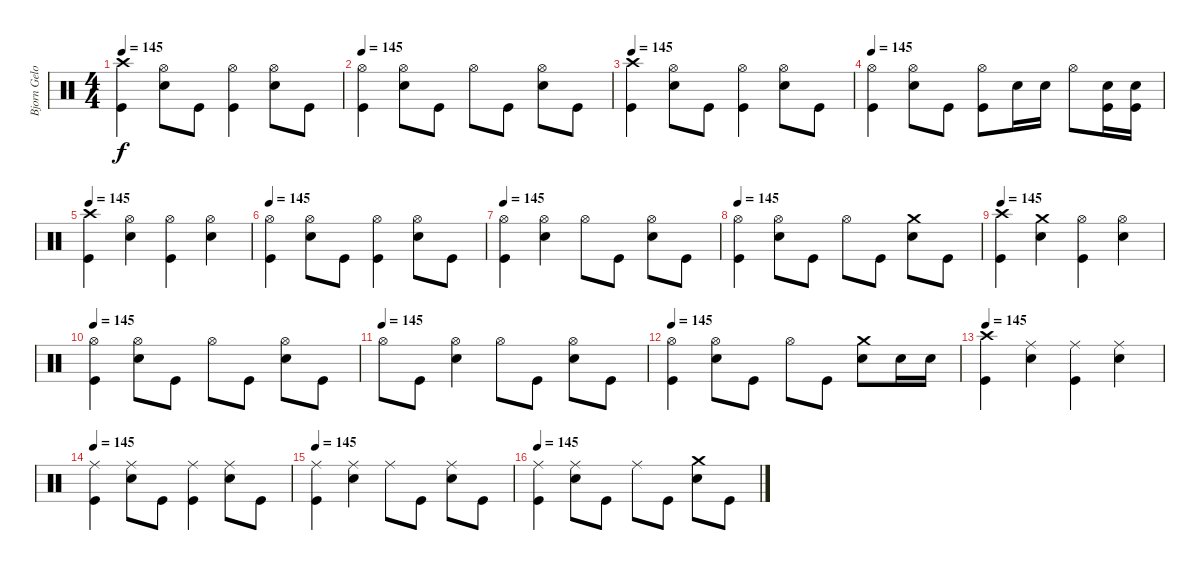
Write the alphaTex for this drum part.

\track ("Bjorn Gelotte-Drum" "Bjorn Gelo") {instrument percussion}
\staff {score}
\articulation defaults
\ts (4 4)
\tempo 145
\clef neutral
\ks c
("Crash high (hit)" "Kick (hit)").4{dy f} ("Hi-Hat (open)" "Electric Snare (hit)").8 "Kick (hit)".8 ("Hi-Hat (open)" "Kick (hit)").4 ("Hi-Hat (open)" "Electric Snare (hit)").8 "Kick (hit)".8 |
\tempo 145
("Hi-Hat (open)" "Kick (hit)").4 ("Hi-Hat (open)" "Electric Snare (hit)").8 "Kick (hit)".8 "Hi-Hat (open)".8 "Kick (hit)".8 ("Hi-Hat (open)" "Electric Snare (hit)").8 "Kick (hit)".8 |
\tempo 145
("Crash high (hit)" "Kick (hit)").4 ("Hi-Hat (open)" "Electric Snare (hit)").8 "Kick (hit)".8 ("Hi-Hat (open)" "Kick (hit)").4 ("Hi-Hat (open)" "Electric Snare (hit)").8 "Kick (hit)".8 |
\tempo 145
("Hi-Hat (open)" "Kick (hit)").4 ("Hi-Hat (open)" "Electric Snare (hit)").8 "Kick (hit)".8 ("Hi-Hat (open)" "Kick (hit)").8 "Electric Snare (hit)".16 "Electric Snare (hit)".16 "Hi-Hat (open)".8 ("Electric Snare (hit)" "Kick (hit)").16 ("Electric Snare (hit)" "Kick (hit)").16 |
\tempo 145
("Crash high (hit)" "Kick (hit)").4 ("Hi-Hat (open)" "Electric Snare (hit)").4 ("Hi-Hat (open)" "Kick (hit)").4 ("Hi-Hat (open)" "Electric Snare (hit)").4 |
\tempo 145
("Hi-Hat (open)" "Kick (hit)").4 ("Hi-Hat (open)" "Electric Snare (hit)").8 "Kick (hit)".8 ("Hi-Hat (open)" "Kick (hit)").4 ("Hi-Hat (open)" "Electric Snare (hit)").8 "Kick (hit)".8 |
\tempo 145
("Hi-Hat (open)" "Kick (hit)").4 ("Hi-Hat (open)" "Electric Snare (hit)").4 "Hi-Hat (open)".8 "Kick (hit)".8 ("Hi-Hat (open)" "Electric Snare (hit)").8 "Kick (hit)".8 |
\tempo 145
("Hi-Hat (open)" "Kick (hit)").4 ("Hi-Hat (open)" "Electric Snare (hit)").8 "Kick (hit)".8 "Hi-Hat (open)".8 "Kick (hit)".8 ("Crash medium (hit)" "Electric Snare (hit)").8 "Kick (hit)".8 |
\tempo 145
("Crash high (hit)" "Kick (hit)").4 ("Crash medium (hit)" "Electric Snare (hit)").4 ("Hi-Hat (open)" "Kick (hit)").4 ("Hi-Hat (open)" "Electric Snare (hit)").4 |
\tempo 145
("Hi-Hat (open)" "Kick (hit)").4 ("Hi-Hat (open)" "Electric Snare (hit)").8 "Kick (hit)".8 "Hi-Hat (open)".8 "Kick (hit)".8 ("Hi-Hat (open)" "Electric Snare (hit)").8 "Kick (hit)".8 |
\tempo (145)
"Hi-Hat (open)".8 "Kick (hit)".8 ("Hi-Hat (open)" "Electric Snare (hit)").4 "Hi-Hat (open)".8 "Kick (hit)".8 ("Hi-Hat (open)" "Electric Snare (hit)").8 "Kick (hit)".8 |
\tempo 145
("Hi-Hat (open)" "Kick (hit)").4 ("Hi-Hat (open)" "Electric Snare (hit)").8 "Kick (hit)".8 "Hi-Hat (open)".8 "Kick (hit)".8 ("Crash medium (hit)" "Electric Snare (hit)").8 "Electric Snare (hit)".16 "Electric Snare (hit)".16 |
\tempo 145
("Crash high (hit)" "Kick (hit)").4 ("Ride (middle)" "Electric Snare (hit)").4 ("Ride (middle)" "Kick (hit)").4 ("Ride (middle)" "Electric Snare (hit)").4 |
\tempo 145
("Ride (middle)" "Kick (hit)").4 ("Ride (middle)" "Electric Snare (hit)").8 "Kick (hit)".8 ("Ride (middle)" "Kick (hit)").4 ("Ride (middle)" "Electric Snare (hit)").8 "Kick (hit)".8 |
\tempo 145
("Ride (middle)" "Kick (hit)").4 ("Ride (middle)" "Electric Snare (hit)").4 "Ride (middle)".8 "Kick (hit)".8 ("Ride (middle)" "Electric Snare (hit)").8 "Kick (hit)".8 |
\tempo 145
("Ride (middle)" "Kick (hit)").4 ("Ride (middle)" "Electric Snare (hit)").8 "Kick (hit)".8 "Ride (middle)".8 "Kick (hit)".8 ("Crash medium (hit)" "Electric Snare (hit)").8 "Kick (hit)".8
